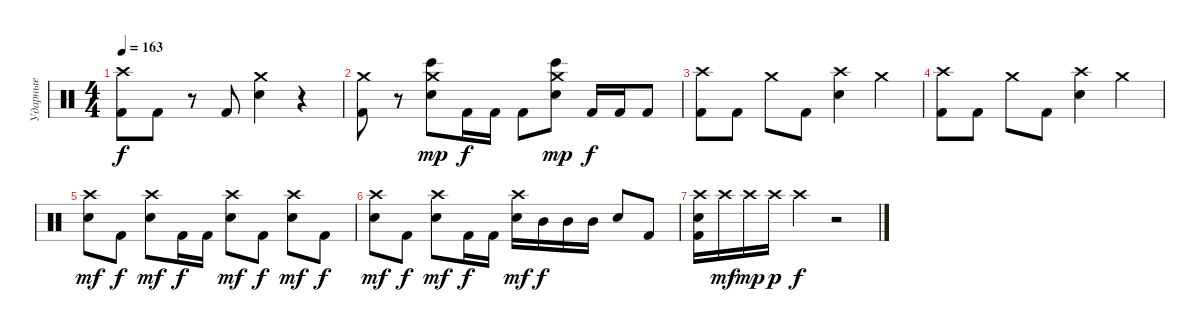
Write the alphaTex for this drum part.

\track ("Ударные" "Ударные") {instrument percussion}
\staff {score}
\articulation defaults
\ts (4 4)
\tempo 163
\clef neutral
\ks c
("Kick (hit) 2" "Crash high (hit)").8{dy f} "Kick (hit) 2".8 r.8 "Kick (hit) 2".8 ("Snare (hit) 2" "Crash medium (hit)").4 r.4 |
("Kick (hit) 2" "Crash medium (hit)").8 r.8 ("Electric Snare (hit)" "Bongo High (hit)" "Crash medium (hit)").8{dy mp} "Kick (hit) 2".16{dy f} "Kick (hit) 2".16 "Kick (hit) 2".8 ("Electric Snare (hit)" "Bongo High (hit)" "Crash medium (hit)").8{dy mp} "Kick (hit) 2".16{dy f} "Kick (hit) 2".16 "Kick (hit) 2".8 |
("Kick (hit) 2" "Crash high (hit)").8 "Kick (hit) 2".8 "Crash medium (hit)".8 "Kick (hit) 2".8 ("Snare (hit) 2" "Crash high (hit)").4 "Crash medium (hit)".4 |
("Kick (hit) 2" "Crash high (hit)").8 "Kick (hit) 2".8 "Crash medium (hit)".8 "Kick (hit) 2".8 ("Snare (hit) 2" "Crash high (hit)").4 "Crash medium (hit)".4 |
("Snare (hit) 2" "Crash high (hit)").8{dy mf} "Kick (hit) 2".8{dy f} ("Snare (hit) 2" "Crash high (hit)").8{dy mf} "Kick (hit) 2".16{dy f} "Kick (hit) 2".16 ("Snare (hit) 2" "Crash high (hit)").8{dy mf} "Kick (hit) 2".8{dy f} ("Snare (hit) 2" "Crash high (hit)").8{dy mf} "Kick (hit) 2".8{dy f} |
("Snare (hit) 2" "Crash high (hit)").8{dy mf} "Kick (hit) 2".8{dy f} ("Snare (hit) 2" "Crash high (hit)").8{dy mf} "Kick (hit) 2".16{dy f} "Kick (hit) 2".16 ("Electric Snare (hit)" "Crash high (hit)").16{dy mf} "Mid Tom (hit)".16{dy f} "Mid Tom (hit)".16 "Mid Tom (hit)".16 "Electric Snare (hit)".8 "Kick (hit) 2".8 |
("Kick (hit) 2" "Snare (hit) 2" "Crash high (hit)").16 "Crash high (hit)".16{dy mf} "Crash high (hit)".16{dy mp} "Crash high (hit)".16{dy p} "Crash high (hit)".4{dy f} r.2
